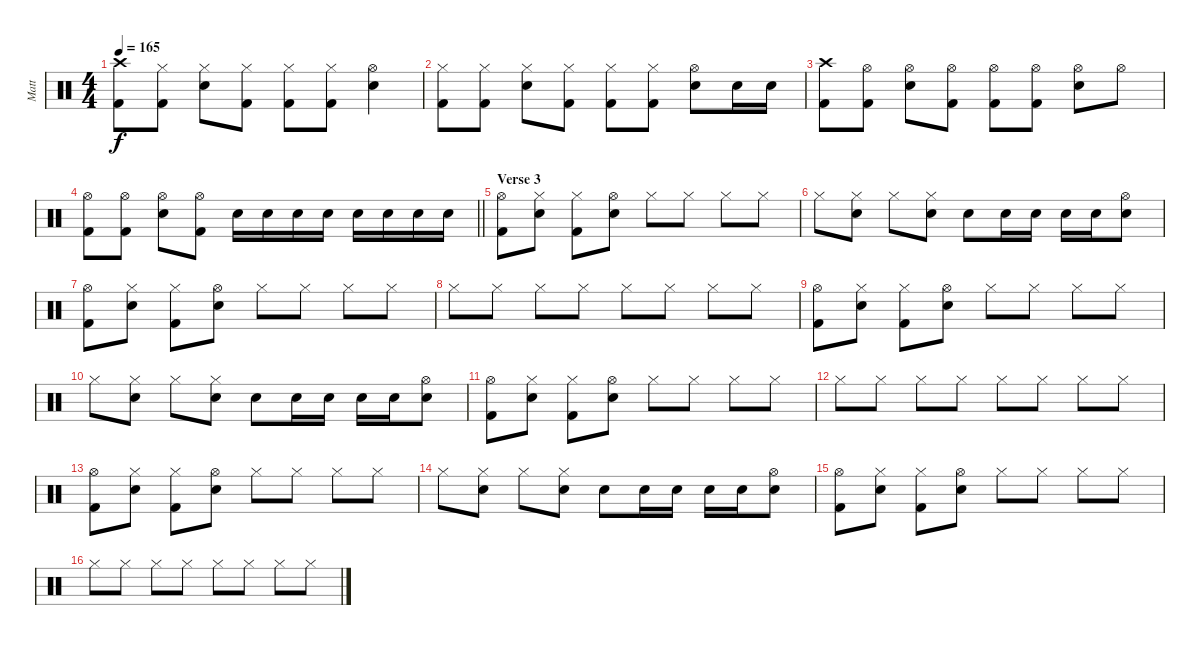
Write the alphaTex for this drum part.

\track ("Matt" "Matt") {instrument percussion}
\staff {score}
\articulation defaults
\ts (4 4)
\tempo 165
\clef neutral
\ks c
("Crash high (hit)" "Kick (hit) 2").8{dy f} ("Hi-Hat (closed)" "Kick (hit) 2").8 ("Hi-Hat (closed)" "Electric Snare (hit)").8 ("Hi-Hat (closed)" "Kick (hit) 2").8 ("Hi-Hat (closed)" "Kick (hit) 2").8 ("Hi-Hat (closed)" "Kick (hit) 2").8 ("Hi-Hat (open)" "Electric Snare (hit)").4 |
("Hi-Hat (closed)" "Kick (hit) 2").8 ("Hi-Hat (closed)" "Kick (hit) 2").8 ("Hi-Hat (closed)" "Electric Snare (hit)").8 ("Hi-Hat (closed)" "Kick (hit) 2").8 ("Hi-Hat (closed)" "Kick (hit) 2").8 ("Hi-Hat (closed)" "Kick (hit) 2").8 ("Hi-Hat (open)" "Electric Snare (hit)").8 "Electric Snare (hit)".16 "Electric Snare (hit)".16 |
("Crash high (hit)" "Kick (hit) 2").8 ("Hi-Hat (open)" "Kick (hit) 2").8 ("Hi-Hat (open)" "Electric Snare (hit)").8 ("Hi-Hat (open)" "Kick (hit) 2").8 ("Hi-Hat (open)" "Kick (hit) 2").8 ("Hi-Hat (open)" "Kick (hit) 2").8 ("Hi-Hat (open)" "Electric Snare (hit)").8 "Hi-Hat (open)".8 |
\barLineRight lightlight
("Hi-Hat (open)" "Kick (hit) 2").8 ("Hi-Hat (open)" "Kick (hit) 2").8 ("Hi-Hat (open)" "Electric Snare (hit)").8 ("Hi-Hat (open)" "Kick (hit) 2").8 "Electric Snare (hit)".16 "Electric Snare (hit)".16 "Electric Snare (hit)".16 "Electric Snare (hit)".16 "Electric Snare (hit)".16 "Electric Snare (hit)".16 "Electric Snare (hit)".16 "Electric Snare (hit)".16 |
\section ("" "Verse 3")
("Hi-Hat (open)" "Kick (hit) 2").8 ("Hi-Hat (closed)" "Electric Snare (hit)").8 ("Hi-Hat (closed)" "Kick (hit) 2").8 ("Hi-Hat (open)" "Electric Snare (hit)").8 "Hi-Hat (closed)".8 "Hi-Hat (closed)".8 "Hi-Hat (closed)".8 "Hi-Hat (closed)".8 |
"Hi-Hat (closed)".8 ("Hi-Hat (closed)" "Electric Snare (hit)").8 "Hi-Hat (closed)".8 ("Hi-Hat (closed)" "Electric Snare (hit)").8 "Electric Snare (hit)".8 "Electric Snare (hit)".16 "Electric Snare (hit)".16 "Electric Snare (hit)".16 "Electric Snare (hit)".16 ("Hi-Hat (open)" "Electric Snare (hit)").8 |
("Hi-Hat (open)" "Kick (hit) 2").8 ("Hi-Hat (closed)" "Electric Snare (hit)").8 ("Hi-Hat (closed)" "Kick (hit) 2").8 ("Hi-Hat (open)" "Electric Snare (hit)").8 "Hi-Hat (closed)".8 "Hi-Hat (closed)".8 "Hi-Hat (closed)".8 "Hi-Hat (closed)".8 |
"Hi-Hat (closed)".8 "Hi-Hat (closed)".8 "Hi-Hat (closed)".8 "Hi-Hat (closed)".8 "Hi-Hat (closed)".8 "Hi-Hat (closed)".8 "Hi-Hat (closed)".8 "Hi-Hat (closed)".8 |
("Hi-Hat (open)" "Kick (hit) 2").8 ("Hi-Hat (closed)" "Electric Snare (hit)").8 ("Hi-Hat (closed)" "Kick (hit) 2").8 ("Hi-Hat (open)" "Electric Snare (hit)").8 "Hi-Hat (closed)".8 "Hi-Hat (closed)".8 "Hi-Hat (closed)".8 "Hi-Hat (closed)".8 |
"Hi-Hat (closed)".8 ("Hi-Hat (closed)" "Electric Snare (hit)").8 "Hi-Hat (closed)".8 ("Hi-Hat (closed)" "Electric Snare (hit)").8 "Electric Snare (hit)".8 "Electric Snare (hit)".16 "Electric Snare (hit)".16 "Electric Snare (hit)".16 "Electric Snare (hit)".16 ("Hi-Hat (open)" "Electric Snare (hit)").8 |
("Hi-Hat (open)" "Kick (hit) 2").8 ("Hi-Hat (closed)" "Electric Snare (hit)").8 ("Hi-Hat (closed)" "Kick (hit) 2").8 ("Hi-Hat (open)" "Electric Snare (hit)").8 "Hi-Hat (closed)".8 "Hi-Hat (closed)".8 "Hi-Hat (closed)".8 "Hi-Hat (closed)".8 |
"Hi-Hat (closed)".8 "Hi-Hat (closed)".8 "Hi-Hat (closed)".8 "Hi-Hat (closed)".8 "Hi-Hat (closed)".8 "Hi-Hat (closed)".8 "Hi-Hat (closed)".8 "Hi-Hat (closed)".8 |
("Hi-Hat (open)" "Kick (hit) 2").8 ("Hi-Hat (closed)" "Electric Snare (hit)").8 ("Hi-Hat (closed)" "Kick (hit) 2").8 ("Hi-Hat (open)" "Electric Snare (hit)").8 "Hi-Hat (closed)".8 "Hi-Hat (closed)".8 "Hi-Hat (closed)".8 "Hi-Hat (closed)".8 |
"Hi-Hat (closed)".8 ("Hi-Hat (closed)" "Electric Snare (hit)").8 "Hi-Hat (closed)".8 ("Hi-Hat (closed)" "Electric Snare (hit)").8 "Electric Snare (hit)".8 "Electric Snare (hit)".16 "Electric Snare (hit)".16 "Electric Snare (hit)".16 "Electric Snare (hit)".16 ("Hi-Hat (open)" "Electric Snare (hit)").8 |
("Hi-Hat (open)" "Kick (hit) 2").8 ("Hi-Hat (closed)" "Electric Snare (hit)").8 ("Hi-Hat (closed)" "Kick (hit) 2").8 ("Hi-Hat (open)" "Electric Snare (hit)").8 "Hi-Hat (closed)".8 "Hi-Hat (closed)".8 "Hi-Hat (closed)".8 "Hi-Hat (closed)".8 |
"Hi-Hat (closed)".8 "Hi-Hat (closed)".8 "Hi-Hat (closed)".8 "Hi-Hat (closed)".8 "Hi-Hat (closed)".8 "Hi-Hat (closed)".8 "Hi-Hat (closed)".8 "Hi-Hat (closed)".8
